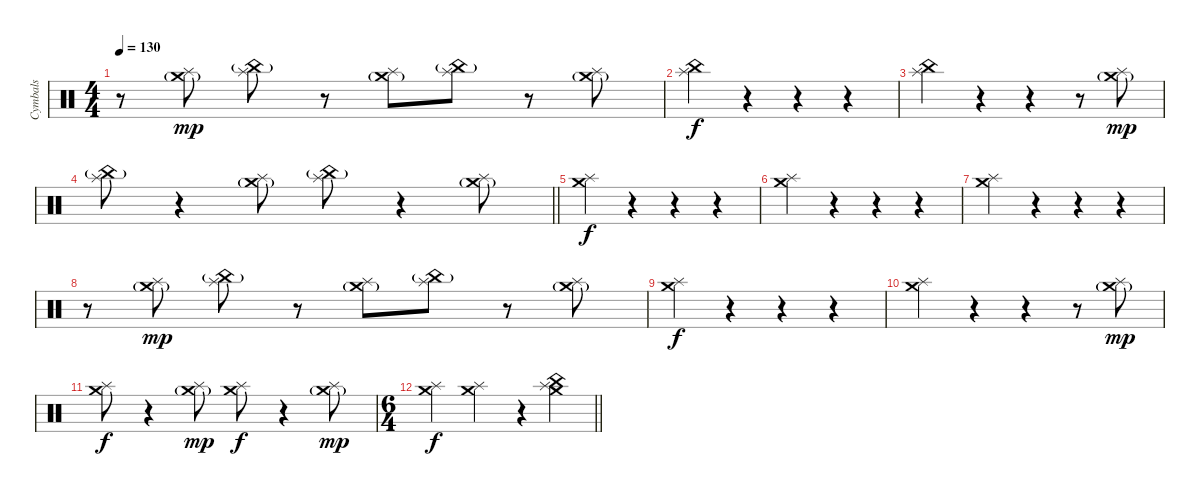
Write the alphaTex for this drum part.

\track ("Cymbals" "Cymbals") {instrument percussion}
\staff {score}
\articulation defaults
\ts (4 4)
\tempo 130
\clef neutral
\ks c
r.8{dy f} ("Crash medium (hit)"{g} "Splash (hit)").8{dy mp} ("China (hit)"{g} "Splash (hit)").8 r.8 ("Crash medium (hit)"{g} "Splash (hit)").8 ("China (hit)"{g} "Splash (hit)").8 r.8 ("Crash medium (hit)"{g} "Splash (hit)").8 |
("China (hit)" "Splash (hit)").4{dy f} r.4 r.4 r.4 |
("China (hit)" "Splash (hit)").4 r.4 r.4 r.8 ("Crash medium (hit)"{g} "Splash (hit)").8{dy mp} |
\barLineRight lightlight
("China (hit)"{g} "Splash (hit)").8 r.4 ("Crash medium (hit)"{g} "Splash (hit)").8 ("China (hit)"{g} "Splash (hit)").8 r.4 ("Crash medium (hit)"{g} "Splash (hit)").8 |
\section ("" "")
("Crash medium (hit)" "Splash (hit)").4{dy f} r.4 r.4 r.4 |
("Crash medium (hit)" "Splash (hit)").4 r.4 r.4 r.4 |
("Crash medium (hit)" "Splash (hit)").4 r.4 r.4 r.4 |
r.8 ("Crash medium (hit)"{g} "Splash (hit)").8{dy mp} ("China (hit)"{g} "Splash (hit)").8 r.8 ("Crash medium (hit)"{g} "Splash (hit)").8 ("China (hit)"{g} "Splash (hit)").8 r.8 ("Crash medium (hit)"{g} "Splash (hit)").8 |
("Crash medium (hit)" "Splash (hit)").4{dy f} r.4 r.4 r.4 |
("Crash medium (hit)" "Splash (hit)").4 r.4 r.4 r.8 ("Crash medium (hit)"{g} "Splash (hit)").8{dy mp} |
("Crash medium (hit)" "Splash (hit)").8{dy f} r.4 ("Crash medium (hit)"{g} "Splash (hit)").8{dy mp} ("Crash medium (hit)" "Splash (hit)").8{dy f} r.4 ("Crash medium (hit)"{g} "Splash (hit)").8{dy mp} |
\ts (6 4)
\barLineRight lightlight
("Crash medium (hit)" "Splash (hit)").2{dy f} ("Crash medium (hit)" "Splash (hit)").2 r.4 ("China (hit)" "Crash medium (hit)" "Splash (hit)").4
